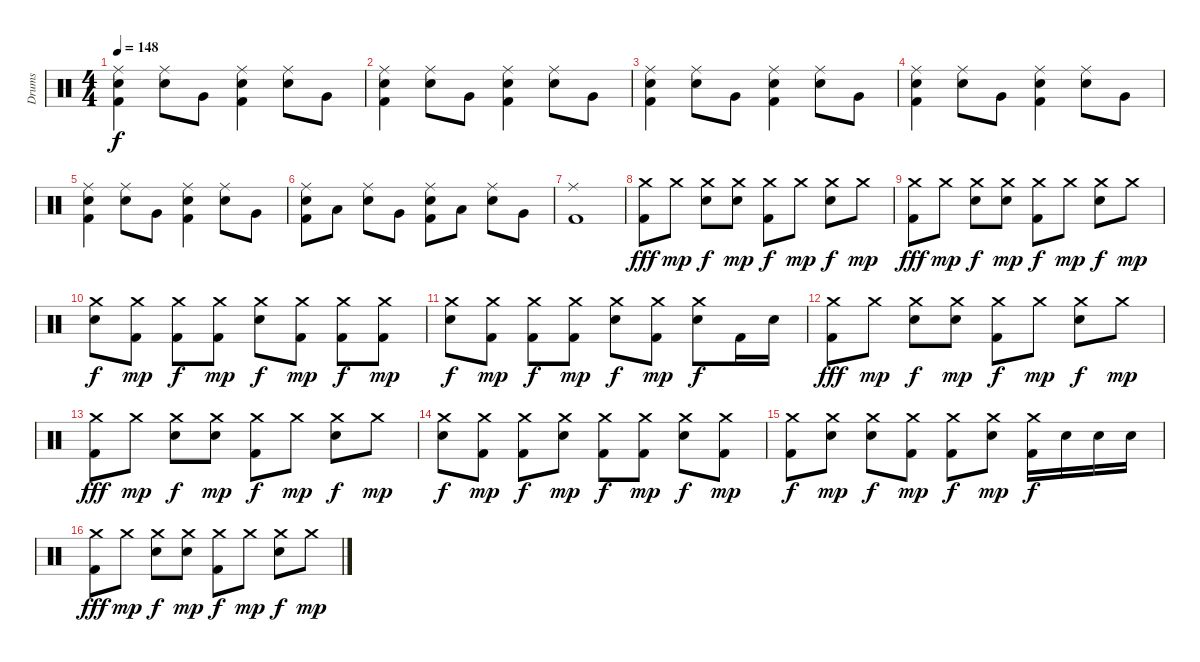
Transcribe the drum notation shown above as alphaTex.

\track ("Drums" "Drums") {instrument percussion}
\staff {score}
\articulation defaults
\ts (4 4)
\tempo 148
\clef neutral
\ks c
("Ride (middle)" "Snare (hit) 2" "Kick (hit) 2").4{dy f} ("Ride (middle)" "Snare (hit) 2").8 "Very Low Tom (hit)".8 ("Ride (middle)" "Snare (hit) 2" "Kick (hit) 2").4 ("Ride (middle)" "Snare (hit) 2").8 "Very Low Tom (hit)".8 |
("Ride (middle)" "Snare (hit) 2" "Kick (hit) 2").4 ("Ride (middle)" "Snare (hit) 2").8 "Very Low Tom (hit)".8 ("Ride (middle)" "Snare (hit) 2" "Kick (hit) 2").4 ("Ride (middle)" "Snare (hit) 2").8 "Very Low Tom (hit)".8 |
("Ride (middle)" "Snare (hit) 2" "Kick (hit) 2").4 ("Ride (middle)" "Snare (hit) 2").8 "Very Low Tom (hit)".8 ("Ride (middle)" "Snare (hit) 2" "Kick (hit) 2").4 ("Ride (middle)" "Snare (hit) 2").8 "Very Low Tom (hit)".8 |
("Ride (middle)" "Snare (hit) 2" "Kick (hit) 2").4 ("Ride (middle)" "Snare (hit) 2").8 "Very Low Tom (hit)".8 ("Ride (middle)" "Snare (hit) 2" "Kick (hit) 2").4 ("Ride (middle)" "Snare (hit) 2").8 "Very Low Tom (hit)".8 |
("Ride (middle)" "Snare (hit) 2" "Kick (hit) 2").4 ("Ride (middle)" "Snare (hit) 2").8 "Very Low Tom (hit)".8 ("Ride (middle)" "Snare (hit) 2" "Kick (hit) 2").4 ("Ride (middle)" "Snare (hit) 2").8 "Very Low Tom (hit)".8 |
("Ride (middle)" "Snare (hit) 2" "Kick (hit) 2").8 "Low Tom (hit)".8 ("Ride (middle)" "Snare (hit) 2").8 "Very Low Tom (hit)".8 ("Ride (middle)" "Snare (hit) 2" "Kick (hit) 2").8 "Low Tom (hit)".8 ("Ride (middle)" "Snare (hit) 2").8 "Very Low Tom (hit)".8 |
("Ride (middle)" "Kick (hit) 2").1 |
("Crash medium (hit)" "Kick (hit) 2").8{dy fff} "Crash medium (hit)".8{dy mp} ("Crash medium (hit)" "Snare (hit) 2").8{dy f} ("Crash medium (hit)" "Snare (hit) 2").8{dy mp} ("Crash medium (hit)" "Kick (hit) 2").8{dy f} "Crash medium (hit)".8{dy mp} ("Crash medium (hit)" "Snare (hit) 2").8{dy f} "Crash medium (hit)".8{dy mp} |
("Crash medium (hit)" "Kick (hit) 2").8{dy fff} "Crash medium (hit)".8{dy mp} ("Crash medium (hit)" "Snare (hit) 2").8{dy f} ("Crash medium (hit)" "Snare (hit) 2").8{dy mp} ("Crash medium (hit)" "Kick (hit) 2").8{dy f} "Crash medium (hit)".8{dy mp} ("Crash medium (hit)" "Snare (hit) 2").8{dy f} "Crash medium (hit)".8{dy mp} |
("Crash medium (hit)" "Snare (hit) 2").8{dy f} ("Crash medium (hit)" "Kick (hit) 2").8{dy mp} ("Crash medium (hit)" "Kick (hit) 2").8{dy f} ("Crash medium (hit)" "Kick (hit) 2").8{dy mp} ("Crash medium (hit)" "Snare (hit) 2").8{dy f} ("Crash medium (hit)" "Kick (hit) 2").8{dy mp} ("Crash medium (hit)" "Kick (hit) 2").8{dy f} ("Crash medium (hit)" "Kick (hit) 2").8{dy mp} |
("Crash medium (hit)" "Snare (hit) 2").8{dy f} ("Crash medium (hit)" "Kick (hit) 2").8{dy mp} ("Crash medium (hit)" "Kick (hit) 2").8{dy f} ("Crash medium (hit)" "Kick (hit) 2").8{dy mp} ("Crash medium (hit)" "Snare (hit) 2").8{dy f} ("Crash medium (hit)" "Kick (hit) 2").8{dy mp} ("Crash medium (hit)" "Snare (hit) 2").8{dy f} "Kick (hit) 2".16 "Snare (hit) 2".16 |
("Crash medium (hit)" "Kick (hit) 2").8{dy fff} "Crash medium (hit)".8{dy mp} ("Crash medium (hit)" "Snare (hit) 2").8{dy f} ("Crash medium (hit)" "Snare (hit) 2").8{dy mp} ("Crash medium (hit)" "Kick (hit) 2").8{dy f} "Crash medium (hit)".8{dy mp} ("Crash medium (hit)" "Snare (hit) 2").8{dy f} "Crash medium (hit)".8{dy mp} |
("Crash medium (hit)" "Kick (hit) 2").8{dy fff} "Crash medium (hit)".8{dy mp} ("Crash medium (hit)" "Snare (hit) 2").8{dy f} ("Crash medium (hit)" "Snare (hit) 2").8{dy mp} ("Crash medium (hit)" "Kick (hit) 2").8{dy f} "Crash medium (hit)".8{dy mp} ("Crash medium (hit)" "Snare (hit) 2").8{dy f} "Crash medium (hit)".8{dy mp} |
("Crash medium (hit)" "Snare (hit) 2").8{dy f} ("Crash medium (hit)" "Kick (hit) 2").8{dy mp} ("Crash medium (hit)" "Kick (hit) 2").8{dy f} ("Crash medium (hit)" "Snare (hit) 2").8{dy mp} ("Crash medium (hit)" "Kick (hit) 2").8{dy f} ("Crash medium (hit)" "Kick (hit) 2").8{dy mp} ("Crash medium (hit)" "Snare (hit) 2").8{dy f} ("Crash medium (hit)" "Kick (hit) 2").8{dy mp} |
("Crash medium (hit)" "Kick (hit) 2").8{dy f} ("Crash medium (hit)" "Snare (hit) 2").8{dy mp} ("Crash medium (hit)" "Snare (hit) 2").8{dy f} ("Crash medium (hit)" "Kick (hit) 2").8{dy mp} ("Crash medium (hit)" "Kick (hit) 2").8{dy f} ("Crash medium (hit)" "Snare (hit) 2").8{dy mp} ("Crash medium (hit)" "Kick (hit) 2").16{dy f} "Snare (hit) 2".16 "Snare (hit) 2".16 "Snare (hit) 2".16 |
("Crash medium (hit)" "Kick (hit) 2").8{dy fff} "Crash medium (hit)".8{dy mp} ("Crash medium (hit)" "Snare (hit) 2").8{dy f} ("Crash medium (hit)" "Snare (hit) 2").8{dy mp} ("Crash medium (hit)" "Kick (hit) 2").8{dy f} "Crash medium (hit)".8{dy mp} ("Crash medium (hit)" "Snare (hit) 2").8{dy f} "Crash medium (hit)".8{dy mp}
